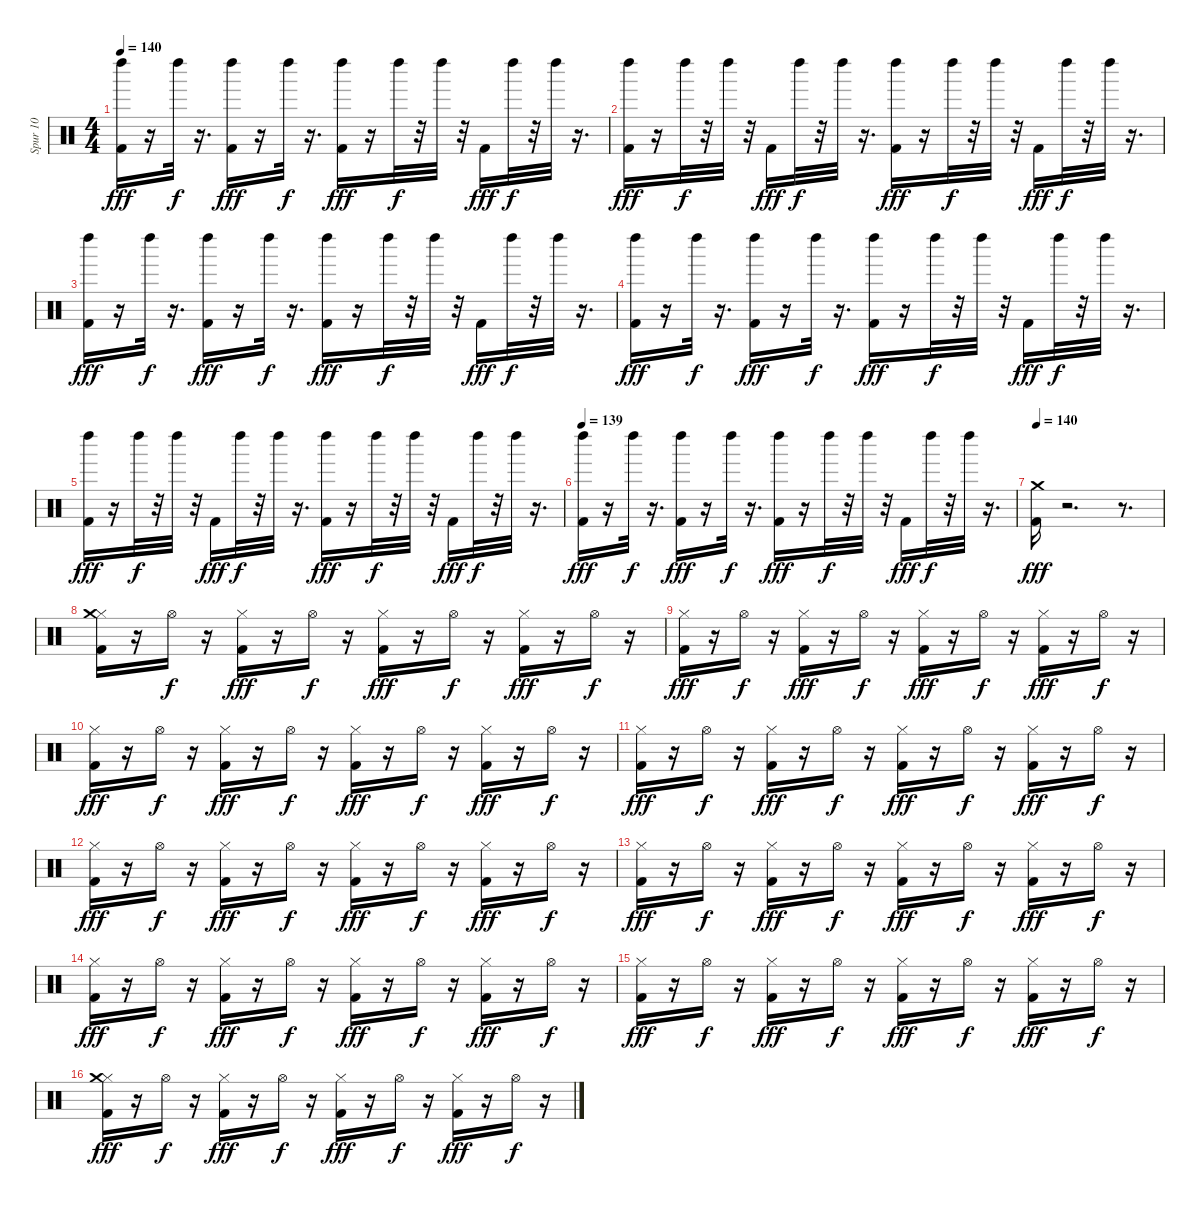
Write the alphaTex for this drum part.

\track ("Spur 10" "Spur 10") {instrument percussion}
\staff {score}
\articulation defaults
\ts (4 4)
\tempo 140
\clef neutral
\ks c
("Kick (hit) 2" "Left Maraca (hit)").16{dy fff} r.16 "Left Maraca (hit)".32{dy f} r.16{d} ("Kick (hit) 2" "Left Maraca (hit)").16{dy fff} r.16 "Left Maraca (hit)".32{dy f} r.16{d} ("Kick (hit) 2" "Left Maraca (hit)").16{dy fff} r.16 "Left Maraca (hit)".32{dy f} r.32 "Left Maraca (hit)".32 r.32 "Kick (hit) 2".16{dy fff} "Left Maraca (hit)".32{dy f} r.32 "Left Maraca (hit)".32 r.16{d} |
("Kick (hit) 2" "Left Maraca (hit)").16{dy fff} r.16 "Left Maraca (hit)".32{dy f} r.32 "Left Maraca (hit)".32 r.32 "Kick (hit) 2".16{dy fff} "Left Maraca (hit)".32{dy f} r.32 "Left Maraca (hit)".32 r.16{d} ("Kick (hit) 2" "Left Maraca (hit)").16{dy fff} r.16 "Left Maraca (hit)".32{dy f} r.32 "Left Maraca (hit)".32 r.32 "Kick (hit) 2".16{dy fff} "Left Maraca (hit)".32{dy f} r.32 "Left Maraca (hit)".32 r.16{d} |
("Kick (hit) 2" "Left Maraca (hit)").16{dy fff} r.16 "Left Maraca (hit)".32{dy f} r.16{d} ("Kick (hit) 2" "Left Maraca (hit)").16{dy fff} r.16 "Left Maraca (hit)".32{dy f} r.16{d} ("Kick (hit) 2" "Left Maraca (hit)").16{dy fff} r.16 "Left Maraca (hit)".32{dy f} r.32 "Left Maraca (hit)".32 r.32 "Kick (hit) 2".16{dy fff} "Left Maraca (hit)".32{dy f} r.32 "Left Maraca (hit)".32 r.16{d} |
("Kick (hit) 2" "Left Maraca (hit)").16{dy fff} r.16 "Left Maraca (hit)".32{dy f} r.16{d} ("Kick (hit) 2" "Left Maraca (hit)").16{dy fff} r.16 "Left Maraca (hit)".32{dy f} r.16{d} ("Kick (hit) 2" "Left Maraca (hit)").16{dy fff} r.16 "Left Maraca (hit)".32{dy f} r.32 "Left Maraca (hit)".32 r.32 "Kick (hit) 2".16{dy fff} "Left Maraca (hit)".32{dy f} r.32 "Left Maraca (hit)".32 r.16{d} |
("Kick (hit) 2" "Left Maraca (hit)").16{dy fff} r.16 "Left Maraca (hit)".32{dy f} r.32 "Left Maraca (hit)".32 r.32 "Kick (hit) 2".16{dy fff} "Left Maraca (hit)".32{dy f} r.32 "Left Maraca (hit)".32 r.16{d} ("Kick (hit) 2" "Left Maraca (hit)").16{dy fff} r.16 "Left Maraca (hit)".32{dy f} r.32 "Left Maraca (hit)".32 r.32 "Kick (hit) 2".16{dy fff} "Left Maraca (hit)".32{dy f} r.32 "Left Maraca (hit)".32 r.16{d} |
\tempo 139
("Kick (hit) 2" "Left Maraca (hit)").16{dy fff} r.16 "Left Maraca (hit)".32{dy f} r.16{d} ("Kick (hit) 2" "Left Maraca (hit)").16{dy fff} r.16 "Left Maraca (hit)".32{dy f} r.16{d} ("Kick (hit) 2" "Left Maraca (hit)").16{dy fff} r.16 "Left Maraca (hit)".32{dy f} r.32 "Left Maraca (hit)".32 r.32 "Kick (hit) 2".16{dy fff} "Left Maraca (hit)".32{dy f} r.32 "Left Maraca (hit)".32 r.16{d} |
\tempo 140
("Kick (hit) 2" "Crash medium (hit)").16{dy fff} r.2{d} r.8{d} |
("Kick (hit) 2" "Hi-Hat (closed)" "Crash medium (hit)").16 r.16 "Hi-Hat (open)".16{dy f} r.16 ("Kick (hit) 2" "Hi-Hat (closed)").16{dy fff} r.16 "Hi-Hat (open)".16{dy f} r.16 ("Kick (hit) 2" "Hi-Hat (closed)").16{dy fff} r.16 "Hi-Hat (open)".16{dy f} r.16 ("Kick (hit) 2" "Hi-Hat (closed)").16{dy fff} r.16 "Hi-Hat (open)".16{dy f} r.16 |
("Kick (hit) 2" "Hi-Hat (closed)").16{dy fff} r.16 "Hi-Hat (open)".16{dy f} r.16 ("Kick (hit) 2" "Hi-Hat (closed)").16{dy fff} r.16 "Hi-Hat (open)".16{dy f} r.16 ("Kick (hit) 2" "Hi-Hat (closed)").16{dy fff} r.16 "Hi-Hat (open)".16{dy f} r.16 ("Kick (hit) 2" "Hi-Hat (closed)").16{dy fff} r.16 "Hi-Hat (open)".16{dy f} r.16 |
("Kick (hit) 2" "Hi-Hat (closed)").16{dy fff} r.16 "Hi-Hat (open)".16{dy f} r.16 ("Kick (hit) 2" "Hi-Hat (closed)").16{dy fff} r.16 "Hi-Hat (open)".16{dy f} r.16 ("Kick (hit) 2" "Hi-Hat (closed)").16{dy fff} r.16 "Hi-Hat (open)".16{dy f} r.16 ("Kick (hit) 2" "Hi-Hat (closed)").16{dy fff} r.16 "Hi-Hat (open)".16{dy f} r.16 |
("Kick (hit) 2" "Hi-Hat (closed)").16{dy fff} r.16 "Hi-Hat (open)".16{dy f} r.16 ("Kick (hit) 2" "Hi-Hat (closed)").16{dy fff} r.16 "Hi-Hat (open)".16{dy f} r.16 ("Kick (hit) 2" "Hi-Hat (closed)").16{dy fff} r.16 "Hi-Hat (open)".16{dy f} r.16 ("Kick (hit) 2" "Hi-Hat (closed)").16{dy fff} r.16 "Hi-Hat (open)".16{dy f} r.16 |
("Kick (hit) 2" "Hi-Hat (closed)").16{dy fff} r.16 "Hi-Hat (open)".16{dy f} r.16 ("Kick (hit) 2" "Hi-Hat (closed)").16{dy fff} r.16 "Hi-Hat (open)".16{dy f} r.16 ("Kick (hit) 2" "Hi-Hat (closed)").16{dy fff} r.16 "Hi-Hat (open)".16{dy f} r.16 ("Kick (hit) 2" "Hi-Hat (closed)").16{dy fff} r.16 "Hi-Hat (open)".16{dy f} r.16 |
("Kick (hit) 2" "Hi-Hat (closed)").16{dy fff} r.16 "Hi-Hat (open)".16{dy f} r.16 ("Kick (hit) 2" "Hi-Hat (closed)").16{dy fff} r.16 "Hi-Hat (open)".16{dy f} r.16 ("Kick (hit) 2" "Hi-Hat (closed)").16{dy fff} r.16 "Hi-Hat (open)".16{dy f} r.16 ("Kick (hit) 2" "Hi-Hat (closed)").16{dy fff} r.16 "Hi-Hat (open)".16{dy f} r.16 |
("Kick (hit) 2" "Hi-Hat (closed)").16{dy fff} r.16 "Hi-Hat (open)".16{dy f} r.16 ("Kick (hit) 2" "Hi-Hat (closed)").16{dy fff} r.16 "Hi-Hat (open)".16{dy f} r.16 ("Kick (hit) 2" "Hi-Hat (closed)").16{dy fff} r.16 "Hi-Hat (open)".16{dy f} r.16 ("Kick (hit) 2" "Hi-Hat (closed)").16{dy fff} r.16 "Hi-Hat (open)".16{dy f} r.16 |
("Kick (hit) 2" "Hi-Hat (closed)").16{dy fff} r.16 "Hi-Hat (open)".16{dy f} r.16 ("Kick (hit) 2" "Hi-Hat (closed)").16{dy fff} r.16 "Hi-Hat (open)".16{dy f} r.16 ("Kick (hit) 2" "Hi-Hat (closed)").16{dy fff} r.16 "Hi-Hat (open)".16{dy f} r.16 ("Kick (hit) 2" "Hi-Hat (closed)").16{dy fff} r.16 "Hi-Hat (open)".16{dy f} r.16 |
("Kick (hit) 2" "Hi-Hat (closed)" "Crash medium (hit)").16{dy fff} r.16 "Hi-Hat (open)".16{dy f} r.16 ("Kick (hit) 2" "Hi-Hat (closed)").16{dy fff} r.16 "Hi-Hat (open)".16{dy f} r.16 ("Kick (hit) 2" "Hi-Hat (closed)").16{dy fff} r.16 "Hi-Hat (open)".16{dy f} r.16 ("Kick (hit) 2" "Hi-Hat (closed)").16{dy fff} r.16 "Hi-Hat (open)".16{dy f} r.16
